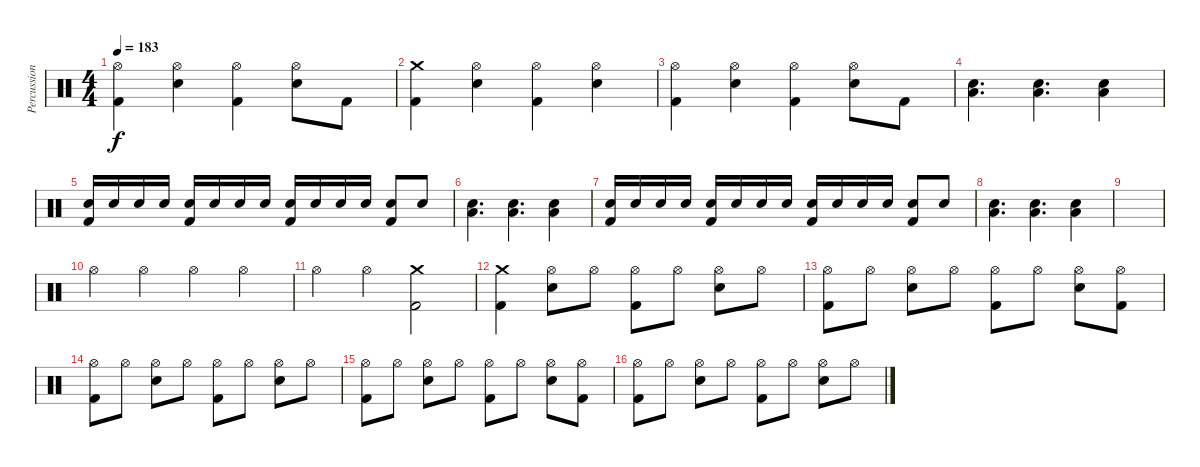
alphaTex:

\track ("Percussion" "Percussion") {instrument percussion}
\staff {score}
\articulation defaults
\ts (4 4)
\tempo 183
\clef neutral
\ks c
("Hi-Hat (open)" "Kick (hit) 2").4{dy f} ("Hi-Hat (open)" "Snare (hit) 2").4 ("Hi-Hat (open)" "Kick (hit) 2").4 ("Hi-Hat (open)" "Snare (hit) 2").8 "Kick (hit) 2".8 |
("Crash medium (hit)" "Kick (hit) 2").4 ("Hi-Hat (open)" "Snare (hit) 2").4 ("Hi-Hat (open)" "Kick (hit) 2").4 ("Hi-Hat (open)" "Snare (hit) 2").4 |
("Hi-Hat (open)" "Kick (hit) 2").4 ("Hi-Hat (open)" "Snare (hit) 2").4 ("Hi-Hat (open)" "Kick (hit) 2").4 ("Hi-Hat (open)" "Snare (hit) 2").8 "Kick (hit) 2".8 |
("Low Floor Tom (hit)" "Snare (hit) 2").4{d} ("Low Floor Tom (hit)" "Snare (hit) 2").4{d} ("Low Floor Tom (hit)" "Snare (hit) 2").4 |
("Snare (hit) 2" "Kick (hit) 2").16 "Snare (hit) 2".16 "Snare (hit) 2".16 "Snare (hit) 2".16 ("Snare (hit) 2" "Kick (hit) 2").16 "Snare (hit) 2".16 "Snare (hit) 2".16 "Snare (hit) 2".16 ("Snare (hit) 2" "Kick (hit) 2").16 "Snare (hit) 2".16 "Snare (hit) 2".16 "Snare (hit) 2".16 ("Snare (hit) 2" "Kick (hit) 2").8 "Snare (hit) 2".8 |
("Low Floor Tom (hit)" "Snare (hit) 2").4{d} ("Low Floor Tom (hit)" "Snare (hit) 2").4{d} ("Low Floor Tom (hit)" "Snare (hit) 2").4 |
("Snare (hit) 2" "Kick (hit) 2").16 "Snare (hit) 2".16 "Snare (hit) 2".16 "Snare (hit) 2".16 ("Snare (hit) 2" "Kick (hit) 2").16 "Snare (hit) 2".16 "Snare (hit) 2".16 "Snare (hit) 2".16 ("Snare (hit) 2" "Kick (hit) 2").16 "Snare (hit) 2".16 "Snare (hit) 2".16 "Snare (hit) 2".16 ("Snare (hit) 2" "Kick (hit) 2").8 "Snare (hit) 2".8 |
("Low Floor Tom (hit)" "Snare (hit) 2").4{d} ("Low Floor Tom (hit)" "Snare (hit) 2").4{d} ("Low Floor Tom (hit)" "Snare (hit) 2").4 |
|
"Hi-Hat (open)".4 "Hi-Hat (open)".4 "Hi-Hat (open)".4 "Hi-Hat (open)".4 |
"Hi-Hat (open)".4 "Hi-Hat (open)".4 ("Crash medium (hit)" "Kick (hit) 2").2 |
("Crash medium (hit)" "Kick (hit) 2").4 ("Hi-Hat (open)" "Snare (hit) 2").8 "Hi-Hat (open)".8 ("Hi-Hat (open)" "Kick (hit) 2").8 "Hi-Hat (open)".8 ("Hi-Hat (open)" "Snare (hit) 2").8 "Hi-Hat (open)".8 |
("Hi-Hat (open)" "Kick (hit) 2").8 "Hi-Hat (open)".8 ("Hi-Hat (open)" "Snare (hit) 2").8 "Hi-Hat (open)".8 ("Hi-Hat (open)" "Kick (hit) 2").8 "Hi-Hat (open)".8 ("Hi-Hat (open)" "Snare (hit) 2").8 ("Hi-Hat (open)" "Kick (hit) 2").8 |
("Hi-Hat (open)" "Kick (hit) 2").8 "Hi-Hat (open)".8 ("Hi-Hat (open)" "Snare (hit) 2").8 "Hi-Hat (open)".8 ("Hi-Hat (open)" "Kick (hit) 2").8 "Hi-Hat (open)".8 ("Hi-Hat (open)" "Snare (hit) 2").8 "Hi-Hat (open)".8 |
("Hi-Hat (open)" "Kick (hit) 2").8 "Hi-Hat (open)".8 ("Hi-Hat (open)" "Snare (hit) 2").8 "Hi-Hat (open)".8 ("Hi-Hat (open)" "Kick (hit) 2").8 "Hi-Hat (open)".8 ("Hi-Hat (open)" "Snare (hit) 2").8 ("Hi-Hat (open)" "Kick (hit) 2").8 |
("Hi-Hat (open)" "Kick (hit) 2").8 "Hi-Hat (open)".8 ("Hi-Hat (open)" "Snare (hit) 2").8 "Hi-Hat (open)".8 ("Hi-Hat (open)" "Kick (hit) 2").8 "Hi-Hat (open)".8 ("Hi-Hat (open)" "Snare (hit) 2").8 "Hi-Hat (open)".8
